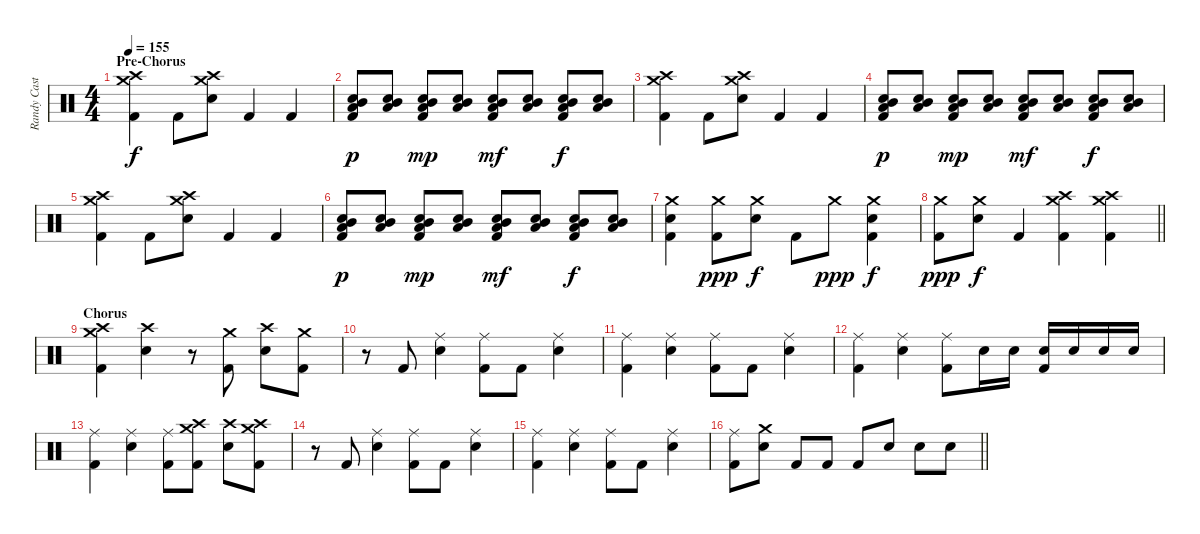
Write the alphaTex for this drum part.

\track ("Randy Castillo - Drums" "Randy Cast") {instrument percussion}
\staff {score}
\articulation defaults
\ts (4 4)
\section ("" "Pre-Chorus")
\tempo 155
\clef neutral
\ks c
("Crash medium (hit)" "Crash high (hit)" "Kick (hit) 2").4{dy f} "Kick (hit) 2".8 ("Crash high (hit)" "Crash medium (hit)" "Snare (hit) 2").8 "Kick (hit) 2".4 "Kick (hit) 2".4 |
("Mid Tom (hit)" "Low Tom (hit)" "Snare (hit) 2" "Kick (hit) 2").8{dy p} ("Mid Tom (hit)" "Low Tom (hit)" "Snare (hit) 2").8 ("Mid Tom (hit)" "Low Tom (hit)" "Snare (hit) 2" "Kick (hit) 2").8{dy mp} ("Mid Tom (hit)" "Low Tom (hit)" "Snare (hit) 2").8 ("Mid Tom (hit)" "Low Tom (hit)" "Snare (hit) 2" "Kick (hit) 2").8{dy mf} ("Mid Tom (hit)" "Low Tom (hit)" "Snare (hit) 2").8 ("Mid Tom (hit)" "Low Tom (hit)" "Snare (hit) 2" "Kick (hit) 2").8{dy f} ("Mid Tom (hit)" "Low Tom (hit)" "Snare (hit) 2").8 |
("Crash medium (hit)" "Crash high (hit)" "Kick (hit) 2").4 "Kick (hit) 2".8 ("Crash high (hit)" "Crash medium (hit)" "Snare (hit) 2").8 "Kick (hit) 2".4 "Kick (hit) 2".4 |
("Mid Tom (hit)" "Low Tom (hit)" "Snare (hit) 2" "Kick (hit) 2").8{dy p} ("Mid Tom (hit)" "Low Tom (hit)" "Snare (hit) 2").8 ("Mid Tom (hit)" "Low Tom (hit)" "Snare (hit) 2" "Kick (hit) 2").8{dy mp} ("Mid Tom (hit)" "Low Tom (hit)" "Snare (hit) 2").8 ("Mid Tom (hit)" "Low Tom (hit)" "Snare (hit) 2" "Kick (hit) 2").8{dy mf} ("Mid Tom (hit)" "Low Tom (hit)" "Snare (hit) 2").8 ("Mid Tom (hit)" "Low Tom (hit)" "Snare (hit) 2" "Kick (hit) 2").8{dy f} ("Mid Tom (hit)" "Low Tom (hit)" "Snare (hit) 2").8 |
("Crash medium (hit)" "Crash high (hit)" "Kick (hit) 2").4 "Kick (hit) 2".8 ("Crash high (hit)" "Crash medium (hit)" "Snare (hit) 2").8 "Kick (hit) 2".4 "Kick (hit) 2".4 |
("Mid Tom (hit)" "Low Tom (hit)" "Snare (hit) 2" "Kick (hit) 2").8{dy p} ("Mid Tom (hit)" "Low Tom (hit)" "Snare (hit) 2").8 ("Mid Tom (hit)" "Low Tom (hit)" "Snare (hit) 2" "Kick (hit) 2").8{dy mp} ("Mid Tom (hit)" "Low Tom (hit)" "Snare (hit) 2").8 ("Mid Tom (hit)" "Low Tom (hit)" "Snare (hit) 2" "Kick (hit) 2").8{dy mf} ("Mid Tom (hit)" "Low Tom (hit)" "Snare (hit) 2").8 ("Mid Tom (hit)" "Low Tom (hit)" "Snare (hit) 2" "Kick (hit) 2").8{dy f} ("Mid Tom (hit)" "Low Tom (hit)" "Snare (hit) 2").8 |
("Crash medium (hit)" "Snare (hit) 2" "Kick (hit) 2").4 ("Crash medium (hit)" "Kick (hit) 2").8{dy ppp} ("Crash medium (hit)" "Snare (hit) 2").8{dy f} "Kick (hit) 2".8 "Crash medium (hit)".8{dy ppp} ("Crash medium (hit)" "Snare (hit) 2" "Kick (hit) 2").4{dy f} |
\barLineRight lightlight
("Crash medium (hit)" "Kick (hit) 2").8{dy ppp} ("Crash medium (hit)" "Snare (hit) 2").8{dy f} "Kick (hit) 2".4 ("Crash medium (hit)" "Crash high (hit)" "Kick (hit) 2").4 ("Crash high (hit)" "Crash medium (hit)" "Kick (hit) 2").4 |
\section ("" "Chorus")
("Crash medium (hit)" "Crash high (hit)" "Kick (hit) 2").4 ("Crash high (hit)" "Snare (hit) 2").4 r.8 ("Crash medium (hit)" "Kick (hit) 2").8 ("Crash high (hit)" "Snare (hit) 2").8 ("Crash medium (hit)" "Kick (hit) 2").8 |
r.8 "Kick (hit) 2".8 ("Ride (middle)" "Snare (hit) 2").4 ("Ride (middle)" "Kick (hit) 2").8 "Kick (hit) 2".8 ("Ride (middle)" "Snare (hit) 2").4 |
("Ride (middle)" "Kick (hit) 2").4 ("Ride (middle)" "Snare (hit) 2").4 ("Ride (middle)" "Kick (hit) 2").8 "Kick (hit) 2".8 ("Ride (middle)" "Snare (hit) 2").4 |
("Ride (middle)" "Kick (hit) 2").4 ("Ride (middle)" "Snare (hit) 2").4 ("Ride (middle)" "Kick (hit) 2").8 "Snare (hit) 2".16 "Snare (hit) 2".16 ("Snare (hit) 2" "Kick (hit) 2").16 "Snare (hit) 2".16 "Snare (hit) 2".16 "Snare (hit) 2".16 |
("Ride (middle)" "Kick (hit) 2").4 ("Ride (middle)" "Snare (hit) 2").4 ("Ride (middle)" "Kick (hit) 2").8 ("Crash medium (hit)" "Crash high (hit)" "Kick (hit) 2").8 ("Crash high (hit)" "Snare (hit) 2").8 ("Crash medium (hit)" "Crash high (hit)" "Kick (hit) 2").8 |
r.8 "Kick (hit) 2".8 ("Ride (middle)" "Snare (hit) 2").4 ("Ride (middle)" "Kick (hit) 2").8 "Kick (hit) 2".8 ("Ride (middle)" "Snare (hit) 2").4 |
("Ride (middle)" "Kick (hit) 2").4 ("Ride (middle)" "Snare (hit) 2").4 ("Ride (middle)" "Kick (hit) 2").8 "Kick (hit) 2".8 ("Ride (middle)" "Snare (hit) 2").4 |
\barLineRight lightlight
("Ride (middle)" "Kick (hit) 2").8 ("Crash medium (hit)" "Snare (hit) 2").8 "Kick (hit) 2".8 "Kick (hit) 2".8 "Kick (hit) 2".8 "Snare (hit) 2".8 "Snare (hit) 2".8 "Snare (hit) 2".8
